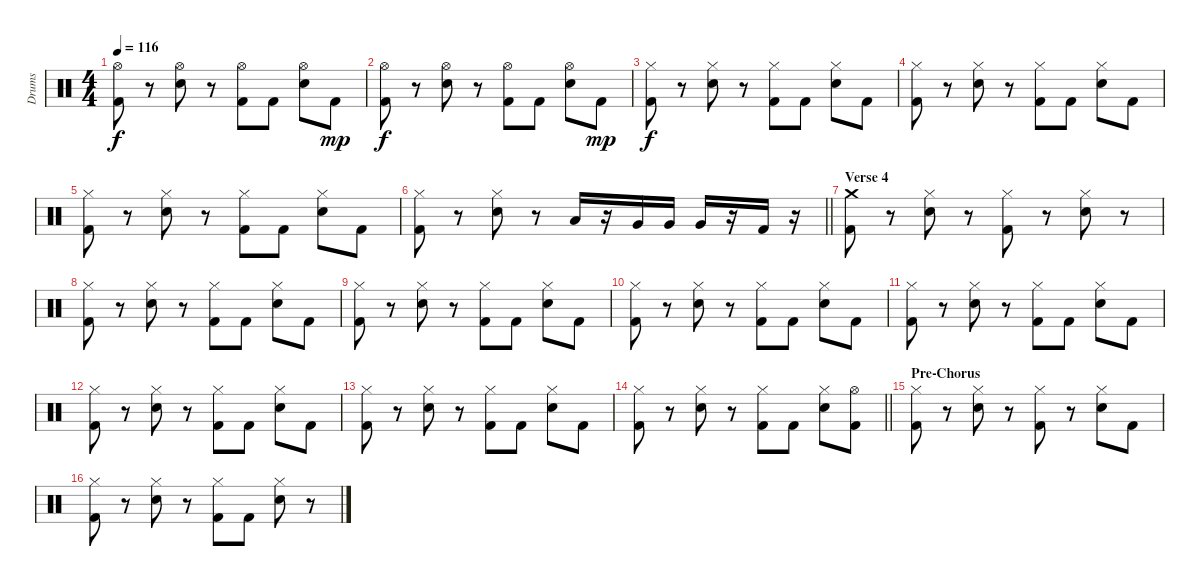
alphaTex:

\track ("Drums" "Drums") {instrument percussion}
\staff {score}
\articulation defaults
\ts (4 4)
\tempo 116
\clef neutral
\ks c
("Hi-Hat (open)" "Kick (hit) 2").8{dy f} r.8 ("Hi-Hat (open)" "Snare (hit) 2").8 r.8 ("Hi-Hat (open)" "Kick (hit) 2").8 "Kick (hit) 2".8 ("Hi-Hat (open)" "Snare (hit) 2").8 "Kick (hit) 2".8{dy mp} |
("Hi-Hat (open)" "Kick (hit) 2").8{dy f} r.8 ("Hi-Hat (open)" "Snare (hit) 2").8 r.8 ("Hi-Hat (open)" "Kick (hit) 2").8 "Kick (hit) 2".8 ("Hi-Hat (open)" "Snare (hit) 2").8 "Kick (hit) 2".8{dy mp} |
("Hi-Hat (closed)" "Kick (hit) 2").8{dy f} r.8 ("Hi-Hat (closed)" "Snare (hit) 2").8 r.8 ("Hi-Hat (closed)" "Kick (hit) 2").8 "Kick (hit) 2".8 ("Hi-Hat (closed)" "Snare (hit) 2").8 "Kick (hit) 2".8 |
("Hi-Hat (closed)" "Kick (hit) 2").8 r.8 ("Hi-Hat (closed)" "Snare (hit) 2").8 r.8 ("Hi-Hat (closed)" "Kick (hit) 2").8 "Kick (hit) 2".8 ("Hi-Hat (closed)" "Snare (hit) 2").8 "Kick (hit) 2".8 |
("Hi-Hat (closed)" "Kick (hit) 2").8 r.8 ("Hi-Hat (closed)" "Snare (hit) 2").8 r.8 ("Hi-Hat (closed)" "Kick (hit) 2").8 "Kick (hit) 2".8 ("Hi-Hat (closed)" "Snare (hit) 2").8 "Kick (hit) 2".8 |
\barLineRight lightlight
("Hi-Hat (closed)" "Kick (hit) 2").8 r.8 ("Hi-Hat (closed)" "Snare (hit) 2").8 r.8 "Low Tom (hit)".16 r.16 "Very Low Tom (hit)".16 "Very Low Tom (hit)".16 "Very Low Tom (hit)".16 r.16 "Kick (hit) 2".16 r.16 |
\section ("" "Verse 4")
("Crash medium (hit)" "Kick (hit) 2").8 r.8 ("Hi-Hat (closed)" "Snare (hit) 2").8 r.8 ("Hi-Hat (closed)" "Kick (hit) 2").8 r.8 ("Hi-Hat (closed)" "Snare (hit) 2").8 r.8 |
("Hi-Hat (closed)" "Kick (hit) 2").8 r.8 ("Hi-Hat (closed)" "Snare (hit) 2").8 r.8 ("Hi-Hat (closed)" "Kick (hit) 2").8 "Kick (hit) 2".8 ("Hi-Hat (closed)" "Snare (hit) 2").8 "Kick (hit) 2".8 |
("Hi-Hat (closed)" "Kick (hit) 2").8 r.8 ("Hi-Hat (closed)" "Snare (hit) 2").8 r.8 ("Hi-Hat (closed)" "Kick (hit) 2").8 "Kick (hit) 2".8 ("Hi-Hat (closed)" "Snare (hit) 2").8 "Kick (hit) 2".8 |
("Hi-Hat (closed)" "Kick (hit) 2").8 r.8 ("Hi-Hat (closed)" "Snare (hit) 2").8 r.8 ("Hi-Hat (closed)" "Kick (hit) 2").8 "Kick (hit) 2".8 ("Hi-Hat (closed)" "Snare (hit) 2").8 "Kick (hit) 2".8 |
("Hi-Hat (closed)" "Kick (hit) 2").8 r.8 ("Hi-Hat (closed)" "Snare (hit) 2").8 r.8 ("Hi-Hat (closed)" "Kick (hit) 2").8 "Kick (hit) 2".8 ("Hi-Hat (closed)" "Snare (hit) 2").8 "Kick (hit) 2".8 |
("Hi-Hat (closed)" "Kick (hit) 2").8 r.8 ("Hi-Hat (closed)" "Snare (hit) 2").8 r.8 ("Hi-Hat (closed)" "Kick (hit) 2").8 "Kick (hit) 2".8 ("Hi-Hat (closed)" "Snare (hit) 2").8 "Kick (hit) 2".8 |
("Hi-Hat (closed)" "Kick (hit) 2").8 r.8 ("Hi-Hat (closed)" "Snare (hit) 2").8 r.8 ("Hi-Hat (closed)" "Kick (hit) 2").8 "Kick (hit) 2".8 ("Hi-Hat (closed)" "Snare (hit) 2").8 "Kick (hit) 2".8 |
\barLineRight lightlight
("Hi-Hat (closed)" "Kick (hit) 2").8 r.8 ("Hi-Hat (closed)" "Snare (hit) 2").8 r.8 ("Hi-Hat (closed)" "Kick (hit) 2").8 "Kick (hit) 2".8 ("Hi-Hat (closed)" "Snare (hit) 2").8 ("Hi-Hat (open)" "Kick (hit) 2").8 |
\section ("" "Pre-Chorus")
("Hi-Hat (closed)" "Kick (hit) 2").8 r.8 ("Hi-Hat (closed)" "Snare (hit) 2").8 r.8 ("Hi-Hat (closed)" "Kick (hit) 2").8 r.8 ("Hi-Hat (closed)" "Snare (hit) 2").8 "Kick (hit) 2".8 |
("Hi-Hat (closed)" "Kick (hit) 2").8 r.8 ("Hi-Hat (closed)" "Snare (hit) 2").8 r.8 ("Hi-Hat (closed)" "Kick (hit) 2").8 "Kick (hit) 2".8 ("Hi-Hat (closed)" "Snare (hit) 2").8 r.8
